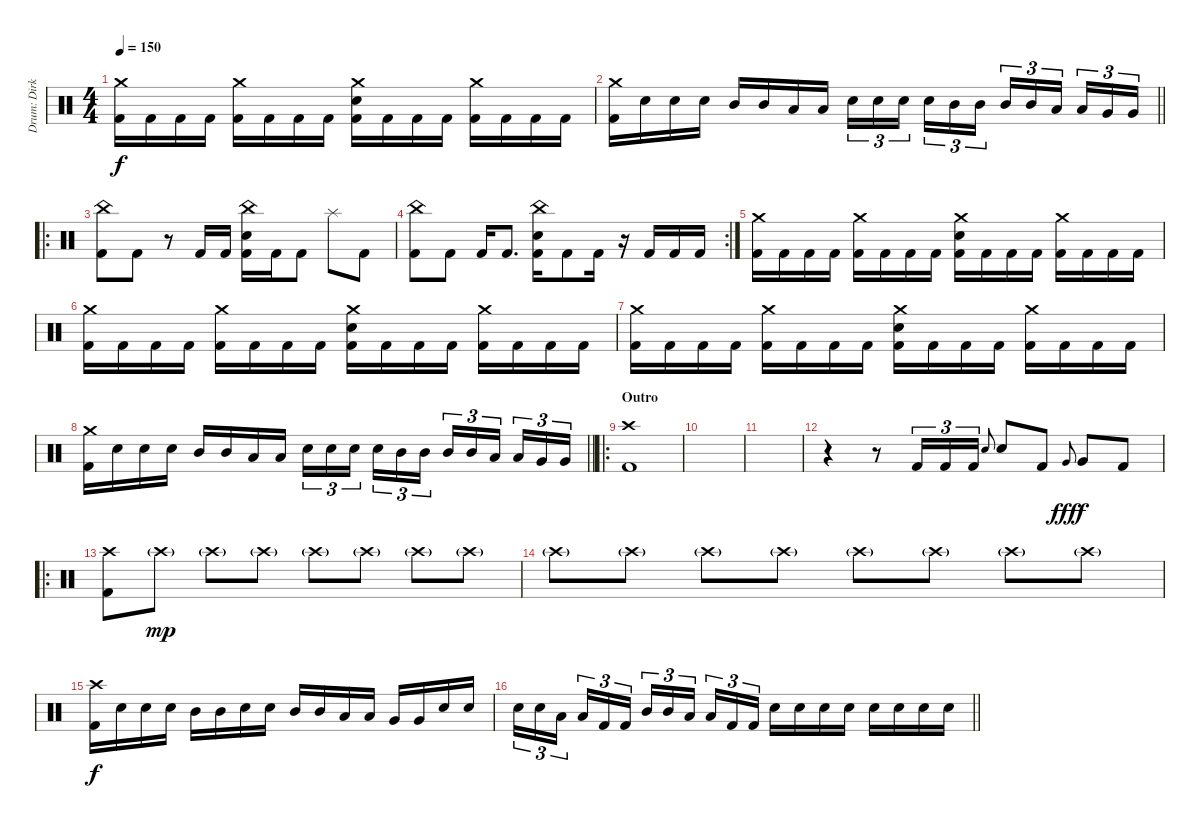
\track ("Drum: Dirk" "Drum: Dirk") {instrument percussion}
\staff {score}
\articulation defaults
\ts (4 4)
\tempo 150
\clef neutral
\ks c
("Crash medium (hit)" "Kick (hit) 2").16{dy f} "Kick (hit) 2".16 "Kick (hit) 2".16 "Kick (hit) 2".16 ("Crash medium (hit)" "Kick (hit) 2").16 "Kick (hit) 2".16 "Kick (hit) 2".16 "Kick (hit) 2".16 ("Crash medium (hit)" "Electric Snare (hit)" "Kick (hit) 2").16 "Kick (hit) 2".16 "Kick (hit) 2".16 "Kick (hit) 2".16 ("Crash medium (hit)" "Kick (hit) 2").16 "Kick (hit) 2".16 "Kick (hit) 2".16 "Kick (hit) 2".16 |
\barLineRight lightlight
("Crash medium (hit)" "Kick (hit) 2").16 "Electric Snare (hit)".16 "Electric Snare (hit)".16 "Electric Snare (hit)".16 "Mid Tom (hit)".16 "Mid Tom (hit)".16 "Low Tom (hit)".16 "Low Tom (hit)".16 "Electric Snare (hit)".16{tu (3 2)} "Electric Snare (hit)".16{tu (3 2)} "Electric Snare (hit)".16{tu (3 2) beam splitsecondary} "Electric Snare (hit)".16{tu (3 2)} "Mid Tom (hit)".16{tu (3 2)} "Mid Tom (hit)".16{tu (3 2)} "Mid Tom (hit)".16{tu (3 2)} "Mid Tom (hit)".16{tu (3 2)} "Low Tom (hit)".16{tu (3 2) beam splitsecondary} "Low Tom (hit)".16{tu (3 2)} "Very Low Tom (hit)".16{tu (3 2)} "Very Low Tom (hit)".16{tu (3 2)} |
\ro
("China (hit)" "Kick (hit) 2").8 "Kick (hit) 2".8 r.8 "Kick (hit) 2".16 "Kick (hit) 2".16 ("China (hit)" "Electric Snare (hit)" "Kick (hit) 2").16 "Kick (hit) 2".16 "Kick (hit) 2".8 "Splash (hit)".8 "Kick (hit) 2".8 |
\rc 2
("China (hit)" "Kick (hit) 2").8 "Kick (hit) 2".8 "Kick (hit) 2".16 "Kick (hit) 2".8{d} ("China (hit)" "Electric Snare (hit)" "Kick (hit) 2").16 "Kick (hit) 2".8 "Kick (hit) 2".16 r.16 "Kick (hit) 2".16 "Kick (hit) 2".16 "Kick (hit) 2".16 |
("Crash medium (hit)" "Kick (hit) 2").16 "Kick (hit) 2".16 "Kick (hit) 2".16 "Kick (hit) 2".16 ("Crash medium (hit)" "Kick (hit) 2").16 "Kick (hit) 2".16 "Kick (hit) 2".16 "Kick (hit) 2".16 ("Crash medium (hit)" "Electric Snare (hit)" "Kick (hit) 2").16 "Kick (hit) 2".16 "Kick (hit) 2".16 "Kick (hit) 2".16 ("Crash medium (hit)" "Kick (hit) 2").16 "Kick (hit) 2".16 "Kick (hit) 2".16 "Kick (hit) 2".16 |
("Crash medium (hit)" "Kick (hit) 2").16 "Kick (hit) 2".16 "Kick (hit) 2".16 "Kick (hit) 2".16 ("Crash medium (hit)" "Kick (hit) 2").16 "Kick (hit) 2".16 "Kick (hit) 2".16 "Kick (hit) 2".16 ("Crash medium (hit)" "Electric Snare (hit)" "Kick (hit) 2").16 "Kick (hit) 2".16 "Kick (hit) 2".16 "Kick (hit) 2".16 ("Crash medium (hit)" "Kick (hit) 2").16 "Kick (hit) 2".16 "Kick (hit) 2".16 "Kick (hit) 2".16 |
("Crash medium (hit)" "Kick (hit) 2").16 "Kick (hit) 2".16 "Kick (hit) 2".16 "Kick (hit) 2".16 ("Crash medium (hit)" "Kick (hit) 2").16 "Kick (hit) 2".16 "Kick (hit) 2".16 "Kick (hit) 2".16 ("Crash medium (hit)" "Electric Snare (hit)" "Kick (hit) 2").16 "Kick (hit) 2".16 "Kick (hit) 2".16 "Kick (hit) 2".16 ("Crash medium (hit)" "Kick (hit) 2").16 "Kick (hit) 2".16 "Kick (hit) 2".16 "Kick (hit) 2".16 |
\barLineRight lightlight
("Crash medium (hit)" "Kick (hit) 2").16 "Electric Snare (hit)".16 "Electric Snare (hit)".16 "Electric Snare (hit)".16 "Mid Tom (hit)".16 "Mid Tom (hit)".16 "Low Tom (hit)".16 "Low Tom (hit)".16 "Electric Snare (hit)".16{tu (3 2)} "Electric Snare (hit)".16{tu (3 2)} "Electric Snare (hit)".16{tu (3 2) beam splitsecondary} "Electric Snare (hit)".16{tu (3 2)} "Mid Tom (hit)".16{tu (3 2)} "Mid Tom (hit)".16{tu (3 2)} "Mid Tom (hit)".16{tu (3 2)} "Mid Tom (hit)".16{tu (3 2)} "Low Tom (hit)".16{tu (3 2) beam splitsecondary} "Low Tom (hit)".16{tu (3 2)} "Very Low Tom (hit)".16{tu (3 2)} "Very Low Tom (hit)".16{tu (3 2)} |
\ro
\section ("" "Outro")
("Crash high (hit)" "Kick (hit) 2").1 |
|
|
r.4 r.8 "Kick (hit) 2".16{tu (3 2)} "Kick (hit) 2".16{tu (3 2)} "Kick (hit) 2".16{tu (3 2)} "Electric Snare (hit)".8{gr onbeat} "Electric Snare (hit)".8 "Kick (hit) 2".8 "Very Low Tom (hit)".8{gr onbeat dy fff} "Very Low Tom (hit)".8{dy f} "Kick (hit) 2".8 |
\ro
("Crash high (hit)" "Kick (hit) 2").8 "Crash high (hit)"{g}.8{dy mp} "Crash high (hit)"{g}.8 "Crash high (hit)"{g}.8 "Crash high (hit)"{g}.8 "Crash high (hit)"{g}.8 "Crash high (hit)"{g}.8 "Crash high (hit)"{g}.8 |
"Crash high (hit)"{g}.8 "Crash high (hit)"{g}.8 "Crash high (hit)"{g}.8 "Crash high (hit)"{g}.8 "Crash high (hit)"{g}.8 "Crash high (hit)"{g}.8 "Crash high (hit)"{g}.8 "Crash high (hit)"{g}.8 |
("Crash high (hit)" "Kick (hit) 2").16{dy f} "Electric Snare (hit)".16 "Electric Snare (hit)".16 "Electric Snare (hit)".16 "Mid Tom (hit)".16 "Mid Tom (hit)".16 "Electric Snare (hit)".16 "Electric Snare (hit)".16 "Mid Tom (hit)".16 "Mid Tom (hit)".16 "Low Tom (hit)".16 "Low Tom (hit)".16 "Very Low Tom (hit)".16 "Very Low Tom (hit)".16 "Electric Snare (hit)".16 "Electric Snare (hit)".16 |
\barLineRight lightlight "Electric Snare (hit)".16{tu (3 2)} "Electric Snare (hit)".16{tu (3 2)} "Low Tom (hit)".16{tu (3 2) beam splitsecondary} "Low Tom (hit)".16{tu (3 2)} "Kick (hit) 2".16{tu (3 2)} "Kick (hit) 2".16{tu (3 2)} "Mid Tom (hit)".16{tu (3 2)} "Mid Tom (hit)".16{tu (3 2)} "Low Tom (hit)".16{tu (3 2) beam splitsecondary} "Low Tom (hit)".16{tu (3 2)} "Kick (hit) 2".16{tu (3 2)} "Kick (hit) 2".16{tu (3 2)} "Electric Snare (hit)".16 "Electric Snare (hit)".16 "Electric Snare (hit)".16 "Electric Snare (hit)".16 "Electric Snare (hit)".16 "Electric Snare (hit)".16 "Electric Snare (hit)".16 "Electric Snare (hit)".16
